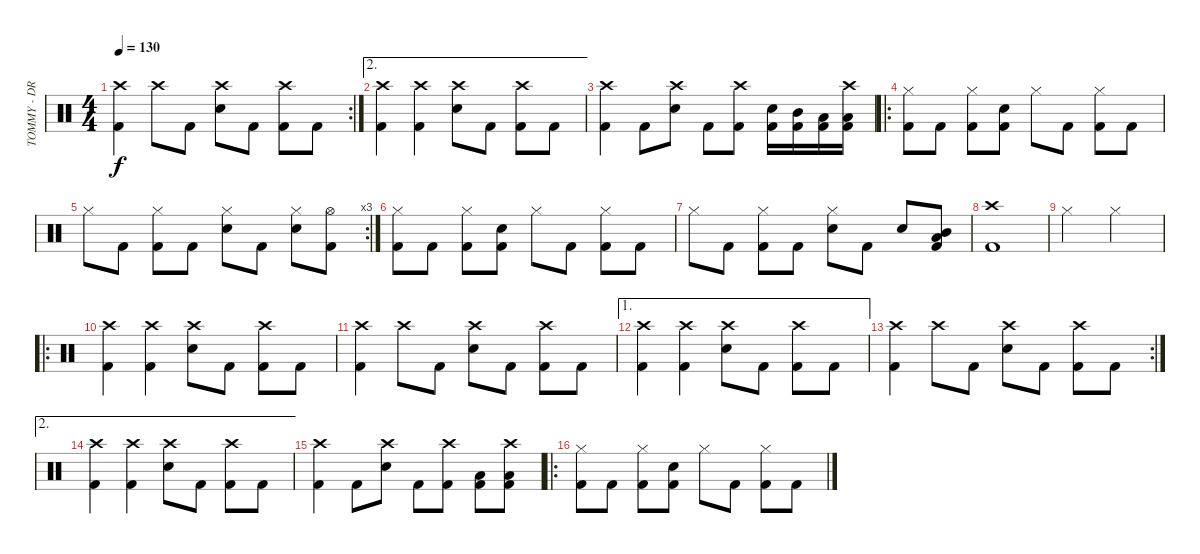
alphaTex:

\track ("TOMMY - DRUMS" "TOMMY - DR") {instrument percussion}
\staff {score}
\articulation defaults
\rc 2
\ts (4 4)
\tempo 130
\clef neutral
\ks c
("Crash high (hit)" "Kick (hit) 2").4{dy f} "Crash high (hit)".8 "Kick (hit) 2".8 ("Crash high (hit)" "Electric Snare (hit)").8 "Kick (hit) 2".8 ("Crash high (hit)" "Kick (hit) 2").8 "Kick (hit) 2".8 |
\ae 2
("Crash high (hit)" "Kick (hit) 2").4 ("Crash high (hit)" "Kick (hit) 2").4 ("Crash high (hit)" "Electric Snare (hit)").8 "Kick (hit) 2".8 ("Crash high (hit)" "Kick (hit) 2").8 "Kick (hit) 2".8 |
("Crash high (hit)" "Kick (hit) 2").4 "Kick (hit) 2".8 ("Crash high (hit)" "Electric Snare (hit)").8 "Kick (hit) 2".8 ("Crash high (hit)" "Kick (hit) 2").8 ("Electric Snare (hit)" "Kick (hit) 2").16 ("Mid Tom (hit)" "Kick (hit) 2").16 ("Low Tom (hit)" "Kick (hit) 2").16 ("Crash high (hit)" "Low Floor Tom (hit)" "Kick (hit) 2").16 |
\ro
("Hi-Hat (closed)" "Kick (hit) 2").8 "Kick (hit) 2".8 ("Hi-Hat (closed)" "Kick (hit) 2").8 ("Electric Snare (hit)" "Kick (hit) 2").8 "Hi-Hat (closed)".8 "Kick (hit) 2".8 ("Hi-Hat (closed)" "Kick (hit) 2").8 "Kick (hit) 2".8 |
\rc 3 "Hi-Hat (closed)".8 "Kick (hit) 2".8
("Hi-Hat (closed)" "Kick (hit) 2").8 "Kick (hit) 2".8 ("Hi-Hat (closed)" "Electric Snare (hit)").8 "Kick (hit) 2".8 ("Hi-Hat (closed)" "Electric Snare (hit)").8 ("Hi-Hat (open)" "Kick (hit) 2").8 |
("Hi-Hat (closed)" "Kick (hit) 2").8 "Kick (hit) 2".8 ("Hi-Hat (closed)" "Kick (hit) 2").8 ("Electric Snare (hit)" "Kick (hit) 2").8 "Hi-Hat (closed)".8 "Kick (hit) 2".8 ("Hi-Hat (closed)" "Kick (hit) 2").8 "Kick (hit) 2".8 |
"Hi-Hat (closed)".8 "Kick (hit) 2".8 ("Hi-Hat (closed)" "Kick (hit) 2").8 "Kick (hit) 2".8 ("Hi-Hat (closed)" "Electric Snare (hit)").8 "Kick (hit) 2".8 "Electric Snare (hit)".8 ("Mid Tom (hit)" "Low Floor Tom (hit)" "Kick (hit) 2").8 |
("Crash high (hit)" "Kick (hit) 2").1 |
"Hi-Hat (closed)".2 "Hi-Hat (closed)".2 |
\ro
("Crash high (hit)" "Kick (hit) 2").4 ("Crash high (hit)" "Kick (hit) 2").4 ("Crash high (hit)" "Electric Snare (hit)").8 "Kick (hit) 2".8 ("Crash high (hit)" "Kick (hit) 2").8 "Kick (hit) 2".8 |
("Crash high (hit)" "Kick (hit) 2").4 "Crash high (hit)".8 "Kick (hit) 2".8 ("Crash high (hit)" "Electric Snare (hit)").8 "Kick (hit) 2".8 ("Crash high (hit)" "Kick (hit) 2").8 "Kick (hit) 2".8 |
\ae 1
("Crash high (hit)" "Kick (hit) 2").4 ("Crash high (hit)" "Kick (hit) 2").4 ("Crash high (hit)" "Electric Snare (hit)").8 "Kick (hit) 2".8 ("Crash high (hit)" "Kick (hit) 2").8 "Kick (hit) 2".8 |
\rc 2
("Crash high (hit)" "Kick (hit) 2").4 "Crash high (hit)".8 "Kick (hit) 2".8 ("Crash high (hit)" "Electric Snare (hit)").8 "Kick (hit) 2".8 ("Crash high (hit)" "Kick (hit) 2").8 "Kick (hit) 2".8 |
\ae 2
("Crash high (hit)" "Kick (hit) 2").4 ("Crash high (hit)" "Kick (hit) 2").4 ("Crash high (hit)" "Electric Snare (hit)").8 "Kick (hit) 2".8 ("Crash high (hit)" "Kick (hit) 2").8 "Kick (hit) 2".8 |
("Crash high (hit)" "Kick (hit) 2").4 "Kick (hit) 2".8 ("Crash high (hit)" "Electric Snare (hit)").8 "Kick (hit) 2".8 ("Crash high (hit)" "Kick (hit) 2").8 ("Low Tom (hit)" "Kick (hit) 2").8 ("Crash high (hit)" "Low Floor Tom (hit)" "Kick (hit) 2").8 |
\ro
("Hi-Hat (closed)" "Kick (hit) 2").8 "Kick (hit) 2".8 ("Hi-Hat (closed)" "Kick (hit) 2").8 ("Electric Snare (hit)" "Kick (hit) 2").8 "Hi-Hat (closed)".8 "Kick (hit) 2".8 ("Hi-Hat (closed)" "Kick (hit) 2").8 "Kick (hit) 2".8
